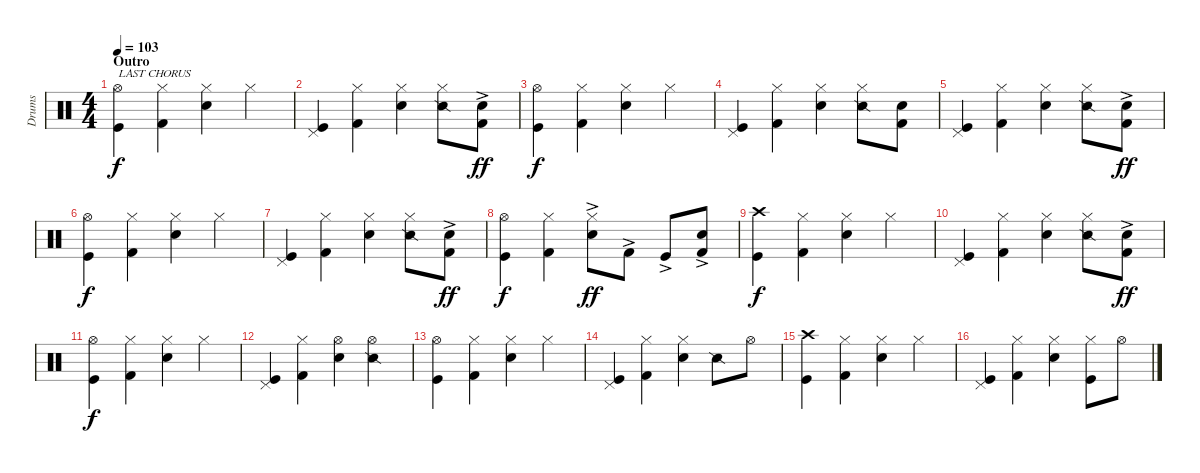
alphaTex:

\track ("Drums" "Drums") {instrument percussion}
\staff {score}
\articulation defaults
\ts (4 4)
\section ("" "Outro")
\tempo 103
\clef neutral
\ks c
("Hi-Hat (open)" "Kick (hit)").4{txt "LAST CHORUS" dy f} ("Hi-Hat (closed)" "Kick (hit) 2").4 ("Hi-Hat (closed)" "Snare (hit) 2").4 "Hi-Hat (closed)".4 |
("Pedal Hi-Hat (hit)" "Kick (hit)").4 ("Hi-Hat (closed)" "Kick (hit) 2").4 ("Hi-Hat (closed)" "Snare (hit) 2").4 ("Hi-Hat (closed)" "Snare (side stick) 2").8 ("Kick (hit) 2" "Snare (hit) 2"{ac}).8{dy ff} |
("Hi-Hat (open)" "Kick (hit)").4{dy f} ("Hi-Hat (closed)" "Kick (hit) 2").4 ("Hi-Hat (closed)" "Snare (hit) 2").4 "Hi-Hat (closed)".4 |
("Pedal Hi-Hat (hit)" "Kick (hit)").4 ("Hi-Hat (closed)" "Kick (hit) 2").4 ("Hi-Hat (closed)" "Snare (hit) 2").4 ("Hi-Hat (closed)" "Snare (side stick) 2").8 ("Kick (hit) 2" "Snare (hit) 2").8 |
("Pedal Hi-Hat (hit)" "Kick (hit)").4 ("Hi-Hat (closed)" "Kick (hit) 2").4 ("Hi-Hat (closed)" "Snare (hit) 2").4 ("Hi-Hat (closed)" "Snare (side stick) 2").8 ("Kick (hit) 2" "Snare (hit) 2"{ac}).8{dy ff} |
("Hi-Hat (open)" "Kick (hit)").4{dy f} ("Hi-Hat (closed)" "Kick (hit) 2").4 ("Hi-Hat (closed)" "Snare (hit) 2").4 "Hi-Hat (closed)".4 |
("Pedal Hi-Hat (hit)" "Kick (hit)").4 ("Hi-Hat (closed)" "Kick (hit) 2").4 ("Hi-Hat (closed)" "Snare (hit) 2").4 ("Hi-Hat (closed)" "Snare (side stick) 2").8 ("Kick (hit) 2" "Snare (hit) 2"{ac}).8{dy ff} |
("Hi-Hat (open)" "Kick (hit)").4{dy f} ("Hi-Hat (closed)" "Kick (hit) 2").4 ("Hi-Hat (closed)" "Snare (hit) 2"{ac}).8{dy ff} "Kick (hit) 2"{ac}.8 "Kick (hit)"{ac}.8 ("Hand Clap (hit)"{ac} "Kick (hit) 2").8 |
("Crash high (hit)" "Kick (hit)").4{dy f} ("Hi-Hat (closed)" "Kick (hit) 2").4 ("Hi-Hat (closed)" "Snare (hit) 2").4 "Hi-Hat (closed)".4 |
("Pedal Hi-Hat (hit)" "Kick (hit)").4 ("Hi-Hat (closed)" "Kick (hit) 2").4 ("Hi-Hat (closed)" "Snare (hit) 2").4 ("Hi-Hat (closed)" "Snare (side stick) 2").8 ("Kick (hit) 2" "Snare (hit) 2"{ac}).8{dy ff} |
("Hi-Hat (open)" "Kick (hit)").4{dy f} ("Hi-Hat (closed)" "Kick (hit) 2").4 ("Hi-Hat (closed)" "Snare (hit) 2").4 "Hi-Hat (closed)".4 |
("Pedal Hi-Hat (hit)" "Kick (hit)").4 ("Hi-Hat (closed)" "Kick (hit) 2").4 ("Hi-Hat (open)" "Snare (hit) 2").4 ("Hi-Hat (open)" "Snare (side stick) 2").4 |
("Hi-Hat (open)" "Kick (hit)").4 ("Hi-Hat (closed)" "Kick (hit) 2").4 ("Hi-Hat (closed)" "Snare (hit) 2").4 "Hi-Hat (closed)".4 |
("Pedal Hi-Hat (hit)" "Kick (hit)").4 ("Hi-Hat (closed)" "Kick (hit) 2").4 ("Hi-Hat (closed)" "Snare (hit) 2").4 "Snare (side stick) 2".8 "Hi-Hat (open)".8 |
("Crash high (hit)" "Kick (hit)").4 ("Hi-Hat (closed)" "Kick (hit) 2").4 ("Hi-Hat (closed)" "Snare (hit) 2").4 "Hi-Hat (closed)".4 |
("Pedal Hi-Hat (hit)" "Kick (hit)").4 ("Hi-Hat (closed)" "Kick (hit) 2").4 ("Hi-Hat (closed)" "Snare (hit) 2").4 ("Hi-Hat (closed)" "Kick (hit)").8 "Hi-Hat (open)".8
